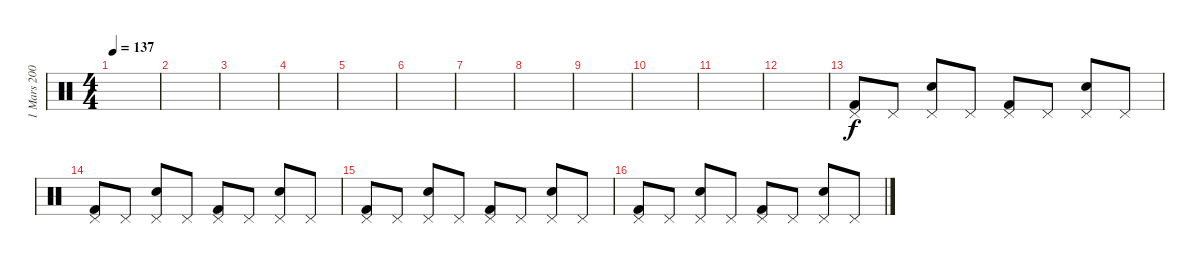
\track ("1 Mars 2004" "1 Mars 200") {instrument percussion}
\staff {score}
\articulation defaults
\ts (4 4)
\tempo 137
\clef neutral
\ks c
|
|
|
|
|
|
|
|
|
|
|
|
("Pedal Hi-Hat (hit)" "Kick (hit) 2").8 "Pedal Hi-Hat (hit)".8 ("Pedal Hi-Hat (hit)" "Electric Snare (hit)").8 "Pedal Hi-Hat (hit)".8 ("Pedal Hi-Hat (hit)" "Kick (hit) 2").8 "Pedal Hi-Hat (hit)".8 ("Pedal Hi-Hat (hit)" "Electric Snare (hit)").8 "Pedal Hi-Hat (hit)".8 |
("Pedal Hi-Hat (hit)" "Kick (hit) 2").8 "Pedal Hi-Hat (hit)".8 ("Pedal Hi-Hat (hit)" "Electric Snare (hit)").8 "Pedal Hi-Hat (hit)".8 ("Pedal Hi-Hat (hit)" "Kick (hit) 2").8 "Pedal Hi-Hat (hit)".8 ("Pedal Hi-Hat (hit)" "Electric Snare (hit)").8 "Pedal Hi-Hat (hit)".8 |
("Pedal Hi-Hat (hit)" "Kick (hit) 2").8 "Pedal Hi-Hat (hit)".8 ("Pedal Hi-Hat (hit)" "Electric Snare (hit)").8 "Pedal Hi-Hat (hit)".8 ("Pedal Hi-Hat (hit)" "Kick (hit) 2").8 "Pedal Hi-Hat (hit)".8 ("Pedal Hi-Hat (hit)" "Electric Snare (hit)").8 "Pedal Hi-Hat (hit)".8 |
("Pedal Hi-Hat (hit)" "Kick (hit) 2").8 "Pedal Hi-Hat (hit)".8 ("Pedal Hi-Hat (hit)" "Electric Snare (hit)").8 "Pedal Hi-Hat (hit)".8 ("Pedal Hi-Hat (hit)" "Kick (hit) 2").8 "Pedal Hi-Hat (hit)".8 ("Pedal Hi-Hat (hit)" "Electric Snare (hit)").8 "Pedal Hi-Hat (hit)".8
